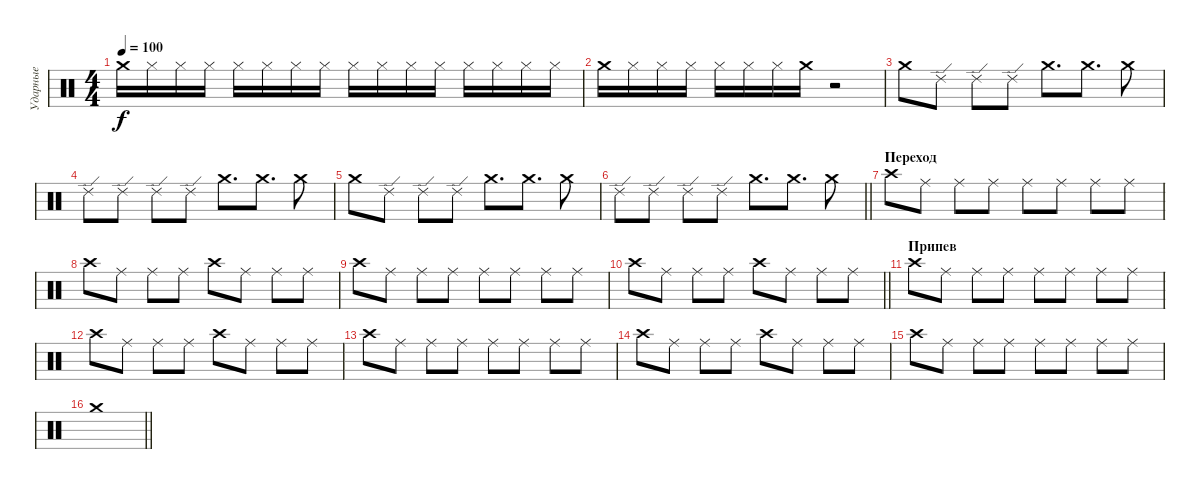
\track ("Ударные" "Ударные") {instrument percussion}
\staff {score}
\articulation defaults
\ts (4 4)
\tempo 100
\clef neutral
\ks c "Crash medium (hit)".16{dy f} "Hi-Hat (closed)".16 "Hi-Hat (closed)".16 "Hi-Hat (closed)".16 "Hi-Hat (closed)".16 "Hi-Hat (closed)".16 "Hi-Hat (closed)".16 "Hi-Hat (closed)".16 "Hi-Hat (closed)".16 "Hi-Hat (closed)".16 "Hi-Hat (closed)".16 "Hi-Hat (closed)".16 "Hi-Hat (closed)".16 "Hi-Hat (closed)".16 "Hi-Hat (closed)".16 "Hi-Hat (closed)".16
|
"Crash medium (hit)".16 "Hi-Hat (closed)".16 "Hi-Hat (closed)".16 "Hi-Hat (closed)".16 "Hi-Hat (closed)".16 "Hi-Hat (closed)".16 "Hi-Hat (closed)".16 "Crash medium (hit)".16 r.2 |
"Crash medium (hit)".8 "Ride (edge) 2".8 "Ride (edge) 2".8 "Ride (edge) 2".8 "Crash medium (hit)".8{d} "Crash medium (hit)".8{d} "Crash medium (hit)".8 |
"Ride (edge) 2".8 "Ride (edge) 2".8 "Ride (edge) 2".8 "Ride (edge) 2".8 "Crash medium (hit)".8{d} "Crash medium (hit)".8{d} "Crash medium (hit)".8 |
"Crash medium (hit)".8 "Ride (edge) 2".8 "Ride (edge) 2".8 "Ride (edge) 2".8 "Crash medium (hit)".8{d} "Crash medium (hit)".8{d} "Crash medium (hit)".8 |
\barLineRight lightlight "Ride (edge) 2".8 "Ride (edge) 2".8 "Ride (edge) 2".8 "Ride (edge) 2".8 "Crash medium (hit)".8{d} "Crash medium (hit)".8{d} "Crash medium (hit)".8
|
\section ("" "Переход")
"Crash high (hit)".8 "Ride (middle)".8 "Ride (middle)".8 "Ride (middle)".8 "Ride (middle)".8 "Ride (middle)".8 "Ride (middle)".8 "Ride (middle)".8 |
"Crash high (hit)".8 "Ride (middle)".8 "Ride (middle)".8 "Ride (middle)".8 "Crash high (hit)".8 "Ride (middle)".8 "Ride (middle)".8 "Ride (middle)".8 |
"Crash high (hit)".8 "Ride (middle)".8 "Ride (middle)".8 "Ride (middle)".8 "Ride (middle)".8 "Ride (middle)".8 "Ride (middle)".8 "Ride (middle)".8 |
\barLineRight lightlight "Crash high (hit)".8 "Ride (middle)".8 "Ride (middle)".8 "Ride (middle)".8 "Crash high (hit)".8 "Ride (middle)".8 "Ride (middle)".8 "Ride (middle)".8
|
\section ("" "Припев")
"Crash high (hit)".8 "Ride (middle)".8 "Ride (middle)".8 "Ride (middle)".8 "Ride (middle)".8 "Ride (middle)".8 "Ride (middle)".8 "Ride (middle)".8 |
"Crash high (hit)".8 "Ride (middle)".8 "Ride (middle)".8 "Ride (middle)".8 "Crash high (hit)".8 "Ride (middle)".8 "Ride (middle)".8 "Ride (middle)".8 |
"Crash high (hit)".8 "Ride (middle)".8 "Ride (middle)".8 "Ride (middle)".8 "Ride (middle)".8 "Ride (middle)".8 "Ride (middle)".8 "Ride (middle)".8 |
"Crash high (hit)".8 "Ride (middle)".8 "Ride (middle)".8 "Ride (middle)".8 "Crash high (hit)".8 "Ride (middle)".8 "Ride (middle)".8 "Ride (middle)".8 |
"Crash high (hit)".8 "Ride (middle)".8 "Ride (middle)".8 "Ride (middle)".8 "Ride (middle)".8 "Ride (middle)".8 "Ride (middle)".8 "Ride (middle)".8 |
\barLineRight lightlight "Crash medium (hit)".1
